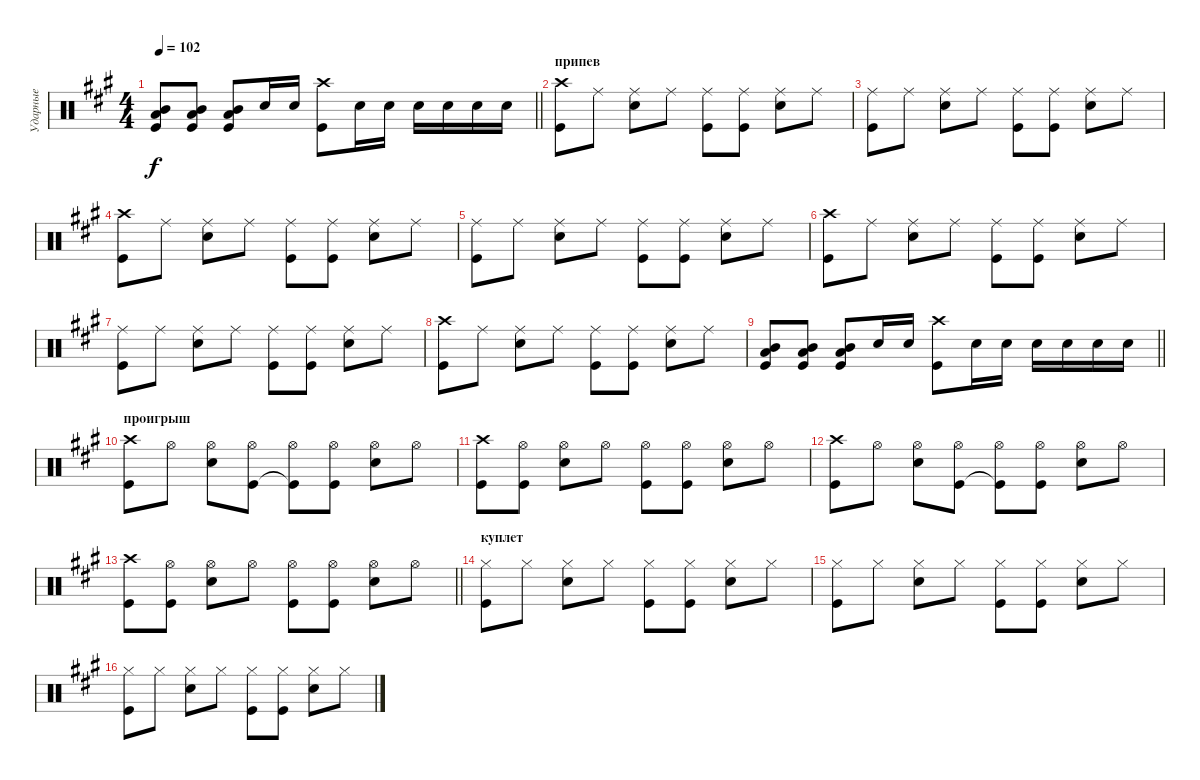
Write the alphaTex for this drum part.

\track ("Ударные" "Ударные") {instrument percussion}
\staff {score}
\articulation defaults
\ts (4 4)
\tempo 102
\clef neutral
\barLineRight lightlight
\ks f#minor
("Kick (hit)" "Low Tom (hit)" "Mid Tom (hit)").8{dy f} ("Kick (hit)" "Low Tom (hit)" "Mid Tom (hit)").8 ("Kick (hit)" "Low Tom (hit)" "Mid Tom (hit)").8 "Snare (hit) 2".16 "Snare (hit) 2".16 ("Crash high (hit)" "Kick (hit)").8 "Snare (hit) 2".16 "Snare (hit) 2".16 "Snare (hit) 2".16 "Snare (hit) 2".16 "Snare (hit) 2".16 "Snare (hit) 2".16 |
\section ("" "припев")
("Crash high (hit)" "Kick (hit)").8 "Ride (middle)".8 ("Ride (middle)" "Snare (hit) 2").8 "Ride (middle)".8 ("Ride (middle)" "Kick (hit)").8 ("Ride (middle)" "Kick (hit)").8 ("Ride (middle)" "Snare (hit) 2").8 "Ride (middle)".8 |
("Ride (middle)" "Kick (hit)").8 "Ride (middle)".8 ("Ride (middle)" "Snare (hit) 2").8 "Ride (middle)".8 ("Ride (middle)" "Kick (hit)").8 ("Ride (middle)" "Kick (hit)").8 ("Snare (hit) 2" "Ride (middle)").8 "Ride (middle)".8 |
("Crash high (hit)" "Kick (hit)").8 "Ride (middle)".8 ("Ride (middle)" "Snare (hit) 2").8 "Ride (middle)".8 ("Ride (middle)" "Kick (hit)").8 ("Ride (middle)" "Kick (hit)").8 ("Ride (middle)" "Snare (hit) 2").8 "Ride (middle)".8 |
("Ride (middle)" "Kick (hit)").8 "Ride (middle)".8 ("Ride (middle)" "Snare (hit) 2").8 "Ride (middle)".8 ("Ride (middle)" "Kick (hit)").8 ("Ride (middle)" "Kick (hit)").8 ("Snare (hit) 2" "Ride (middle)").8 "Ride (middle)".8 |
("Crash high (hit)" "Kick (hit)").8 "Ride (middle)".8 ("Ride (middle)" "Snare (hit) 2").8 "Ride (middle)".8 ("Ride (middle)" "Kick (hit)").8 ("Ride (middle)" "Kick (hit)").8 ("Ride (middle)" "Snare (hit) 2").8 "Ride (middle)".8 |
("Ride (middle)" "Kick (hit)").8 "Ride (middle)".8 ("Ride (middle)" "Snare (hit) 2").8 "Ride (middle)".8 ("Ride (middle)" "Kick (hit)").8 ("Ride (middle)" "Kick (hit)").8 ("Snare (hit) 2" "Ride (middle)").8 "Ride (middle)".8 |
("Crash high (hit)" "Kick (hit)").8 "Ride (middle)".8 ("Ride (middle)" "Snare (hit) 2").8 "Ride (middle)".8 ("Ride (middle)" "Kick (hit)").8 ("Ride (middle)" "Kick (hit)").8 ("Ride (middle)" "Snare (hit) 2").8 "Ride (middle)".8 |
\barLineRight lightlight
("Kick (hit)" "Low Tom (hit)" "Mid Tom (hit)").8 ("Kick (hit)" "Low Tom (hit)" "Mid Tom (hit)").8 ("Kick (hit)" "Low Tom (hit)" "Mid Tom (hit)").8 "Snare (hit) 2".16 "Snare (hit) 2".16 ("Crash high (hit)" "Kick (hit)").8 "Snare (hit) 2".16 "Snare (hit) 2".16 "Snare (hit) 2".16 "Snare (hit) 2".16 "Snare (hit) 2".16 "Snare (hit) 2".16 |
\section ("" "проигрыш")
("Crash high (hit)" "Kick (hit)").8 "Hi-Hat (open)".8 ("Hi-Hat (open)" "Snare (hit) 2").8 ("Hi-Hat (open)" "Kick (hit)").8 ("Hi-Hat (open)" "Kick (hit)"{t}).8 ("Hi-Hat (open)" "Kick (hit)").8 ("Hi-Hat (open)" "Snare (hit) 2").8 "Hi-Hat (open)".8 |
("Crash high (hit)" "Kick (hit)").8 ("Hi-Hat (open)" "Kick (hit)").8 ("Hi-Hat (open)" "Snare (hit) 2").8 "Hi-Hat (open)".8 ("Hi-Hat (open)" "Kick (hit)").8 ("Hi-Hat (open)" "Kick (hit)").8 ("Hi-Hat (open)" "Snare (hit) 2").8 "Hi-Hat (open)".8 |
("Crash high (hit)" "Kick (hit)").8 "Hi-Hat (open)".8 ("Hi-Hat (open)" "Snare (hit) 2").8 ("Hi-Hat (open)" "Kick (hit)").8 ("Hi-Hat (open)" "Kick (hit)"{t}).8 ("Hi-Hat (open)" "Kick (hit)").8 ("Hi-Hat (open)" "Snare (hit) 2").8 "Hi-Hat (open)".8 |
\barLineRight lightlight
("Crash high (hit)" "Kick (hit)").8 ("Hi-Hat (open)" "Kick (hit)").8 ("Hi-Hat (open)" "Snare (hit) 2").8 "Hi-Hat (open)".8 ("Hi-Hat (open)" "Kick (hit)").8 ("Hi-Hat (open)" "Kick (hit)").8 ("Hi-Hat (open)" "Snare (hit) 2").8 "Hi-Hat (open)".8 |
\section ("" "куплет")
("Hi-Hat (closed)" "Kick (hit)").8 "Hi-Hat (closed)".8 ("Hi-Hat (closed)" "Snare (hit) 2").8 "Hi-Hat (closed)".8 ("Hi-Hat (closed)" "Kick (hit)").8 ("Hi-Hat (closed)" "Kick (hit)").8 ("Hi-Hat (closed)" "Snare (hit) 2").8 "Hi-Hat (closed)".8 |
("Hi-Hat (closed)" "Kick (hit)").8 "Hi-Hat (closed)".8 ("Hi-Hat (closed)" "Snare (hit) 2").8 "Hi-Hat (closed)".8 ("Hi-Hat (closed)" "Kick (hit)").8 ("Hi-Hat (closed)" "Kick (hit)").8 ("Hi-Hat (closed)" "Snare (hit) 2").8 "Hi-Hat (closed)".8 |
("Hi-Hat (closed)" "Kick (hit)").8 "Hi-Hat (closed)".8 ("Hi-Hat (closed)" "Snare (hit) 2").8 "Hi-Hat (closed)".8 ("Hi-Hat (closed)" "Kick (hit)").8 ("Hi-Hat (closed)" "Kick (hit)").8 ("Hi-Hat (closed)" "Snare (hit) 2").8 "Hi-Hat (closed)".8
